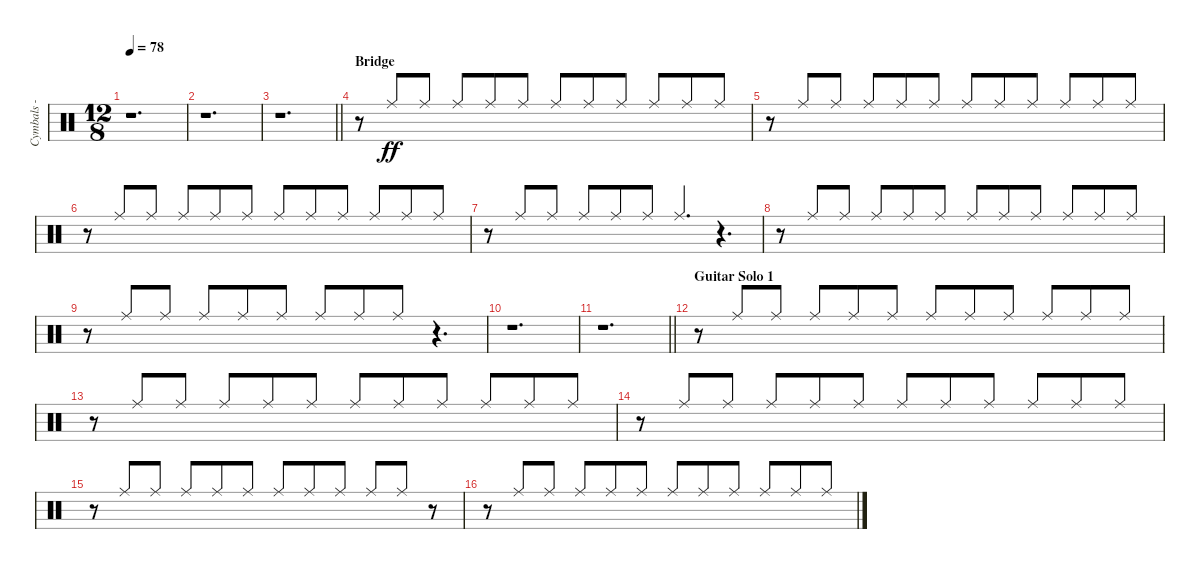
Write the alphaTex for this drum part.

\track ("Cymbals - ride" "Cymbals - ") {instrument percussion}
\staff {score}
\articulation defaults
\ts (12 8)
\tempo 78
\clef neutral
\ks c
r.1{d dy ff} |
r.1{d} |
\barLineRight lightlight
r.1{d} |
\section ("" "Bridge")
r.8 "Ride (middle)".8{beam Up} "Ride (middle)".8{beam Up} "Ride (middle)".8{beam Up} "Ride (middle)".8{beam Up} "Ride (middle)".8{beam Up} "Ride (middle)".8{beam Up} "Ride (middle)".8{beam Up} "Ride (middle)".8{beam Up} "Ride (middle)".8{beam Up} "Ride (middle)".8{beam Up} "Ride (middle)".8{beam Up} |
r.8 "Ride (middle)".8{beam Up} "Ride (middle)".8{beam Up} "Ride (middle)".8{beam Up} "Ride (middle)".8{beam Up} "Ride (middle)".8{beam Up} "Ride (middle)".8{beam Up} "Ride (middle)".8{beam Up} "Ride (middle)".8{beam Up} "Ride (middle)".8{beam Up} "Ride (middle)".8{beam Up} "Ride (middle)".8{beam Up} |
r.8 "Ride (middle)".8{beam Up} "Ride (middle)".8{beam Up} "Ride (middle)".8{beam Up} "Ride (middle)".8{beam Up} "Ride (middle)".8{beam Up} "Ride (middle)".8{beam Up} "Ride (middle)".8{beam Up} "Ride (middle)".8{beam Up} "Ride (middle)".8{beam Up} "Ride (middle)".8{beam Up} "Ride (middle)".8{beam Up} |
r.8 "Ride (middle)".8{beam Up} "Ride (middle)".8{beam Up} "Ride (middle)".8{beam Up} "Ride (middle)".8{beam Up} "Ride (middle)".8{beam Up} "Ride (middle)".4{d beam Up} r.4{d} |
r.8 "Ride (middle)".8{beam Up} "Ride (middle)".8{beam Up} "Ride (middle)".8{beam Up} "Ride (middle)".8{beam Up} "Ride (middle)".8{beam Up} "Ride (middle)".8{beam Up} "Ride (middle)".8{beam Up} "Ride (middle)".8{beam Up} "Ride (middle)".8{beam Up} "Ride (middle)".8{beam Up} "Ride (middle)".8{beam Up} |
r.8 "Ride (middle)".8{beam Up} "Ride (middle)".8{beam Up} "Ride (middle)".8{beam Up} "Ride (middle)".8{beam Up} "Ride (middle)".8{beam Up} "Ride (middle)".8{beam Up} "Ride (middle)".8{beam Up} "Ride (middle)".8{beam Up} r.4{d} |
r.1{d} |
\barLineRight lightlight
r.1{d} |
\section ("" "Guitar Solo 1")
r.8 "Ride (middle)".8{beam Up} "Ride (middle)".8{beam Up} "Ride (middle)".8{beam Up} "Ride (middle)".8{beam Up} "Ride (middle)".8{beam Up} "Ride (middle)".8{beam Up} "Ride (middle)".8{beam Up} "Ride (middle)".8{beam Up} "Ride (middle)".8{beam Up} "Ride (middle)".8{beam Up} "Ride (middle)".8{beam Up} |
r.8 "Ride (middle)".8{beam Up} "Ride (middle)".8{beam Up} "Ride (middle)".8{beam Up} "Ride (middle)".8{beam Up} "Ride (middle)".8{beam Up} "Ride (middle)".8{beam Up} "Ride (middle)".8{beam Up} "Ride (middle)".8{beam Up} "Ride (middle)".8{beam Up} "Ride (middle)".8{beam Up} "Ride (middle)".8{beam Up} |
r.8 "Ride (middle)".8{beam Up} "Ride (middle)".8{beam Up} "Ride (middle)".8{beam Up} "Ride (middle)".8{beam Up} "Ride (middle)".8{beam Up} "Ride (middle)".8{beam Up} "Ride (middle)".8{beam Up} "Ride (middle)".8{beam Up} "Ride (middle)".8{beam Up} "Ride (middle)".8{beam Up} "Ride (middle)".8{beam Up} |
r.8 "Ride (middle)".8{beam Up} "Ride (middle)".8{beam Up} "Ride (middle)".8{beam Up} "Ride (middle)".8{beam Up} "Ride (middle)".8{beam Up} "Ride (middle)".8{beam Up} "Ride (middle)".8{beam Up} "Ride (middle)".8{beam Up} "Ride (middle)".8{beam Up} "Ride (middle)".8{beam Up} r.8 |
r.8 "Ride (middle)".8{beam Up} "Ride (middle)".8{beam Up} "Ride (middle)".8{beam Up} "Ride (middle)".8{beam Up} "Ride (middle)".8{beam Up} "Ride (middle)".8{beam Up} "Ride (middle)".8{beam Up} "Ride (middle)".8{beam Up} "Ride (middle)".8{beam Up} "Ride (middle)".8{beam Up} "Ride (middle)".8{beam Up}
